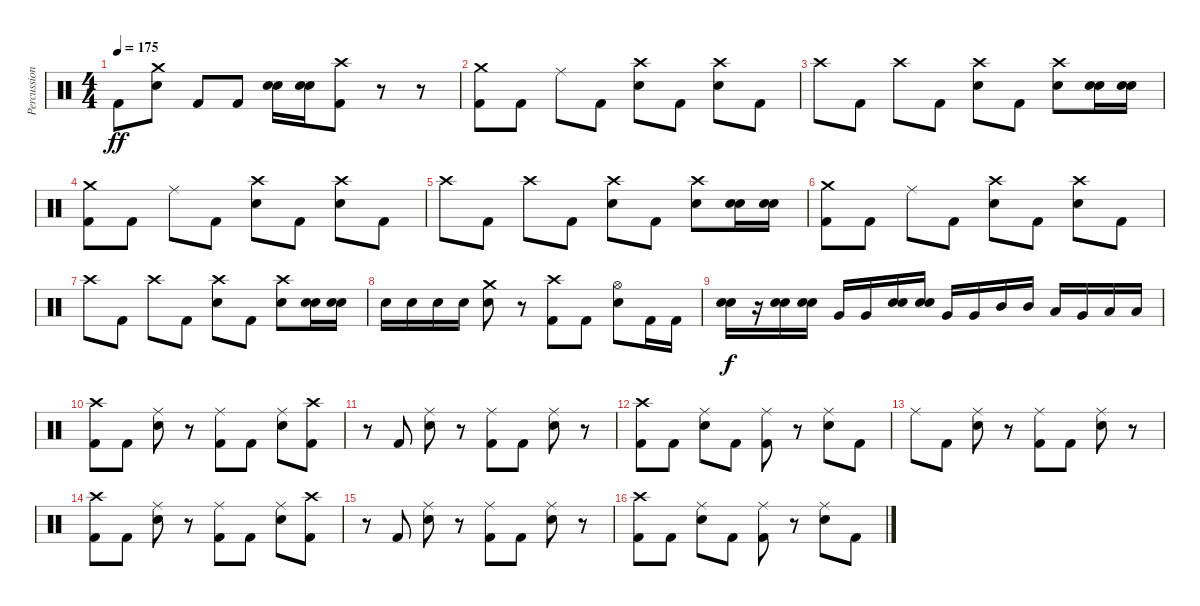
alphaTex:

\track ("Percussion" "Percussion") {instrument percussion}
\staff {score}
\articulation defaults
\ts (4 4)
\tempo 175
\clef neutral
\ks c "Kick (hit) 2".8{dy ff}
("Crash medium (hit)" "Snare (hit) 2").8 "Kick (hit) 2".8 "Kick (hit) 2".8 ("Snare (hit) 2" "Electric Snare (hit)").16 ("Snare (hit) 2" "Electric Snare (hit)").16 ("Crash high (hit)" "Kick (hit) 2").8 r.8 r.8 |
("Crash medium (hit)" "Kick (hit) 2").8 "Kick (hit) 2".8 "Ride (middle)".8 "Kick (hit) 2".8 ("Crash high (hit)" "Snare (hit) 2").8 "Kick (hit) 2".8 ("Crash high (hit)" "Snare (hit) 2").8 "Kick (hit) 2".8 |
"Crash high (hit)".8 "Kick (hit) 2".8 "Crash high (hit)".8 "Kick (hit) 2".8 ("Crash high (hit)" "Snare (hit) 2").8 "Kick (hit) 2".8 ("Crash high (hit)" "Snare (hit) 2").8 ("Snare (hit) 2" "Electric Snare (hit)").16 ("Snare (hit) 2" "Electric Snare (hit)").16 |
("Crash medium (hit)" "Kick (hit) 2").8 "Kick (hit) 2".8 "Ride (middle)".8 "Kick (hit) 2".8 ("Crash high (hit)" "Snare (hit) 2").8 "Kick (hit) 2".8 ("Crash high (hit)" "Snare (hit) 2").8 "Kick (hit) 2".8 |
"Crash high (hit)".8 "Kick (hit) 2".8 "Crash high (hit)".8 "Kick (hit) 2".8 ("Crash high (hit)" "Snare (hit) 2").8 "Kick (hit) 2".8 ("Crash high (hit)" "Snare (hit) 2").8 ("Snare (hit) 2" "Electric Snare (hit)").16 ("Snare (hit) 2" "Electric Snare (hit)").16 |
("Crash medium (hit)" "Kick (hit) 2").8 "Kick (hit) 2".8 "Ride (middle)".8 "Kick (hit) 2".8 ("Crash high (hit)" "Snare (hit) 2").8 "Kick (hit) 2".8 ("Crash high (hit)" "Snare (hit) 2").8 "Kick (hit) 2".8 |
"Crash high (hit)".8 "Kick (hit) 2".8 "Crash high (hit)".8 "Kick (hit) 2".8 ("Crash high (hit)" "Snare (hit) 2").8 "Kick (hit) 2".8 ("Crash high (hit)" "Snare (hit) 2").8 ("Snare (hit) 2" "Electric Snare (hit)").16 ("Snare (hit) 2" "Electric Snare (hit)").16 |
"Snare (hit) 2".16 "Snare (hit) 2".16 "Snare (hit) 2".16 "Snare (hit) 2".16 ("Crash medium (hit)" "Snare (hit) 2").8 r.8 ("Crash high (hit)" "Kick (hit) 2").8 "Kick (hit) 2".8 ("Hi-Hat (open)" "Snare (hit) 2").8 "Kick (hit) 2".16 "Kick (hit) 2".16 |
("Snare (hit) 2" "Electric Snare (hit)").16{dy f} r.16 ("Snare (hit) 2" "Electric Snare (hit)").16 ("Snare (hit) 2" "Electric Snare (hit)").16 "Very Low Tom (hit)".16 "Very Low Tom (hit)".16 ("Snare (hit) 2" "Electric Snare (hit)").16 ("Snare (hit) 2" "Electric Snare (hit)").16 "Very Low Tom (hit)".16 "Very Low Tom (hit)".16 "Mid Tom (hit)".16 "Mid Tom (hit)".16 "Low Tom (hit)".16 "Very Low Tom (hit)".16 "Low Floor Tom (hit)".16 "Low Floor Tom (hit)".16 |
("Crash high (hit)" "Kick (hit) 2").8 "Kick (hit) 2".8 ("Ride (middle)" "Snare (hit) 2").8 r.8 ("Ride (middle)" "Kick (hit) 2").8 "Kick (hit) 2".8 ("Ride (middle)" "Snare (hit) 2").8 ("Crash high (hit)" "Kick (hit) 2").8 |
r.8 "Kick (hit) 2".8 ("Ride (middle)" "Snare (hit) 2").8 r.8 ("Ride (middle)" "Kick (hit) 2").8 "Kick (hit) 2".8 ("Ride (middle)" "Snare (hit) 2").8 r.8 |
("Crash high (hit)" "Kick (hit) 2").8 "Kick (hit) 2".8 ("Ride (middle)" "Snare (hit) 2").8 "Kick (hit) 2".8 ("Ride (middle)" "Kick (hit) 2").8 r.8 ("Ride (middle)" "Snare (hit) 2").8 "Kick (hit) 2".8 |
"Ride (middle)".8 "Kick (hit) 2".8 ("Ride (middle)" "Snare (hit) 2").8 r.8 ("Ride (middle)" "Kick (hit) 2").8 "Kick (hit) 2".8 ("Ride (middle)" "Snare (hit) 2").8 r.8 |
("Crash high (hit)" "Kick (hit) 2").8 "Kick (hit) 2".8 ("Ride (middle)" "Snare (hit) 2").8 r.8 ("Ride (middle)" "Kick (hit) 2").8 "Kick (hit) 2".8 ("Ride (middle)" "Snare (hit) 2").8 ("Crash high (hit)" "Kick (hit) 2").8 |
r.8 "Kick (hit) 2".8 ("Ride (middle)" "Snare (hit) 2").8 r.8 ("Ride (middle)" "Kick (hit) 2").8 "Kick (hit) 2".8 ("Ride (middle)" "Snare (hit) 2").8 r.8 |
("Crash high (hit)" "Kick (hit) 2").8 "Kick (hit) 2".8 ("Ride (middle)" "Snare (hit) 2").8 "Kick (hit) 2".8 ("Ride (middle)" "Kick (hit) 2").8 r.8 ("Ride (middle)" "Snare (hit) 2").8 "Kick (hit) 2".8
